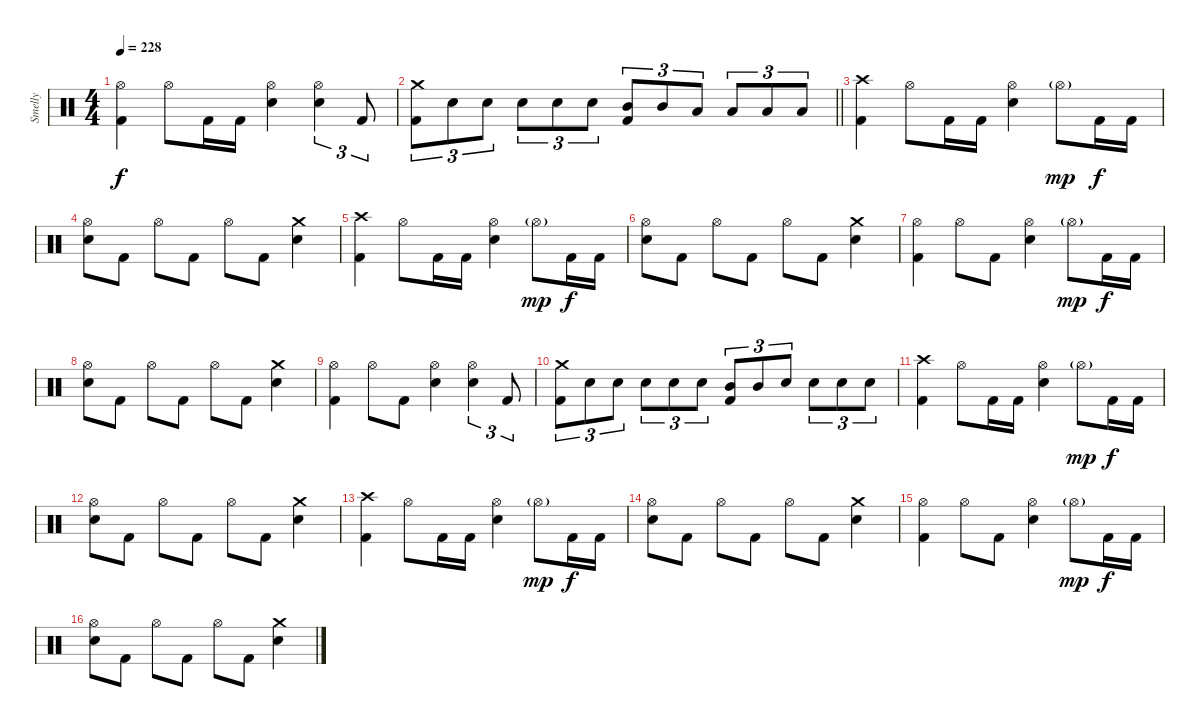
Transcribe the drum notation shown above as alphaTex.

\track ("Smelly" "Smelly") {instrument percussion}
\staff {score}
\articulation defaults
\ts (4 4)
\tempo 228
\clef neutral
\ks c
("Hi-Hat (open)" "Kick (hit) 2").4{dy f} "Hi-Hat (open)".8 "Kick (hit) 2".16 "Kick (hit) 2".16 ("Hi-Hat (open)" "Electric Snare (hit)").4 ("Hi-Hat (open)" "Electric Snare (hit)").4{tu (3 2)} "Kick (hit) 2".8{tu (3 2)} |
\barLineRight lightlight
("Crash medium (hit)" "Kick (hit) 2").8{tu (3 2)} "Electric Snare (hit)".8{tu (3 2)} "Electric Snare (hit)".8{tu (3 2)} "Electric Snare (hit)".8{tu (3 2)} "Electric Snare (hit)".8{tu (3 2)} "Electric Snare (hit)".8{tu (3 2)} ("Mid Tom (hit)" "Kick (hit) 2").8{tu (3 2)} "Mid Tom (hit)".8{tu (3 2)} "Low Tom (hit)".8{tu (3 2)} "Low Tom (hit)".8{tu (3 2)} "Low Floor Tom (hit)".8{tu (3 2)} "Low Floor Tom (hit)".8{tu (3 2)} |
\section ("" "")
("Crash high (hit)" "Kick (hit) 2").4 "Hi-Hat (open)".8 "Kick (hit) 2".16 "Kick (hit) 2".16 ("Hi-Hat (open)" "Electric Snare (hit)").4 "Hi-Hat (open)"{g}.8{dy mp} "Kick (hit) 2".16{dy f} "Kick (hit) 2".16 |
("Hi-Hat (open)" "Electric Snare (hit)").8 "Kick (hit) 2".8 "Hi-Hat (open)".8 "Kick (hit) 2".8 "Hi-Hat (open)".8 "Kick (hit) 2".8 ("Crash medium (hit)" "Electric Snare (hit)").4 |
("Crash high (hit)" "Kick (hit) 2").4 "Hi-Hat (open)".8 "Kick (hit) 2".16 "Kick (hit) 2".16 ("Hi-Hat (open)" "Electric Snare (hit)").4 "Hi-Hat (open)"{g}.8{dy mp} "Kick (hit) 2".16{dy f} "Kick (hit) 2".16 |
("Hi-Hat (open)" "Electric Snare (hit)").8 "Kick (hit) 2".8 "Hi-Hat (open)".8 "Kick (hit) 2".8 "Hi-Hat (open)".8 "Kick (hit) 2".8 ("Crash medium (hit)" "Electric Snare (hit)").4 |
("Hi-Hat (open)" "Kick (hit) 2").4 "Hi-Hat (open)".8 "Kick (hit) 2".8 ("Hi-Hat (open)" "Electric Snare (hit)").4 "Hi-Hat (open)"{g}.8{dy mp} "Kick (hit) 2".16{dy f} "Kick (hit) 2".16 |
("Hi-Hat (open)" "Electric Snare (hit)").8 "Kick (hit) 2".8 "Hi-Hat (open)".8 "Kick (hit) 2".8 "Hi-Hat (open)".8 "Kick (hit) 2".8 ("Crash medium (hit)" "Electric Snare (hit)").4 |
("Hi-Hat (open)" "Kick (hit) 2").4 "Hi-Hat (open)".8 "Kick (hit) 2".8 ("Hi-Hat (open)" "Electric Snare (hit)").4 ("Hi-Hat (open)" "Electric Snare (hit)").4{tu (3 2)} "Kick (hit) 2".8{tu (3 2)} |
("Crash medium (hit)" "Kick (hit) 2").8{tu (3 2)} "Electric Snare (hit)".8{tu (3 2)} "Electric Snare (hit)".8{tu (3 2)} "Electric Snare (hit)".8{tu (3 2)} "Electric Snare (hit)".8{tu (3 2)} "Electric Snare (hit)".8{tu (3 2)} ("Mid Tom (hit)" "Kick (hit) 2").8{tu (3 2)} "Mid Tom (hit)".8{tu (3 2)} "Electric Snare (hit)".8{tu (3 2)} "Electric Snare (hit)".8{tu (3 2)} "Electric Snare (hit)".8{tu (3 2)} "Electric Snare (hit)".8{tu (3 2)} |
("Crash high (hit)" "Kick (hit) 2").4 "Hi-Hat (open)".8 "Kick (hit) 2".16 "Kick (hit) 2".16 ("Hi-Hat (open)" "Electric Snare (hit)").4 "Hi-Hat (open)"{g}.8{dy mp} "Kick (hit) 2".16{dy f} "Kick (hit) 2".16 |
("Hi-Hat (open)" "Electric Snare (hit)").8 "Kick (hit) 2".8 "Hi-Hat (open)".8 "Kick (hit) 2".8 "Hi-Hat (open)".8 "Kick (hit) 2".8 ("Crash medium (hit)" "Electric Snare (hit)").4 |
("Crash high (hit)" "Kick (hit) 2").4 "Hi-Hat (open)".8 "Kick (hit) 2".16 "Kick (hit) 2".16 ("Hi-Hat (open)" "Electric Snare (hit)").4 "Hi-Hat (open)"{g}.8{dy mp} "Kick (hit) 2".16{dy f} "Kick (hit) 2".16 |
("Hi-Hat (open)" "Electric Snare (hit)").8 "Kick (hit) 2".8 "Hi-Hat (open)".8 "Kick (hit) 2".8 "Hi-Hat (open)".8 "Kick (hit) 2".8 ("Crash medium (hit)" "Electric Snare (hit)").4 |
("Hi-Hat (open)" "Kick (hit) 2").4 "Hi-Hat (open)".8 "Kick (hit) 2".8 ("Hi-Hat (open)" "Electric Snare (hit)").4 "Hi-Hat (open)"{g}.8{dy mp} "Kick (hit) 2".16{dy f} "Kick (hit) 2".16 |
("Hi-Hat (open)" "Electric Snare (hit)").8 "Kick (hit) 2".8 "Hi-Hat (open)".8 "Kick (hit) 2".8 "Hi-Hat (open)".8 "Kick (hit) 2".8 ("Crash medium (hit)" "Electric Snare (hit)").4
